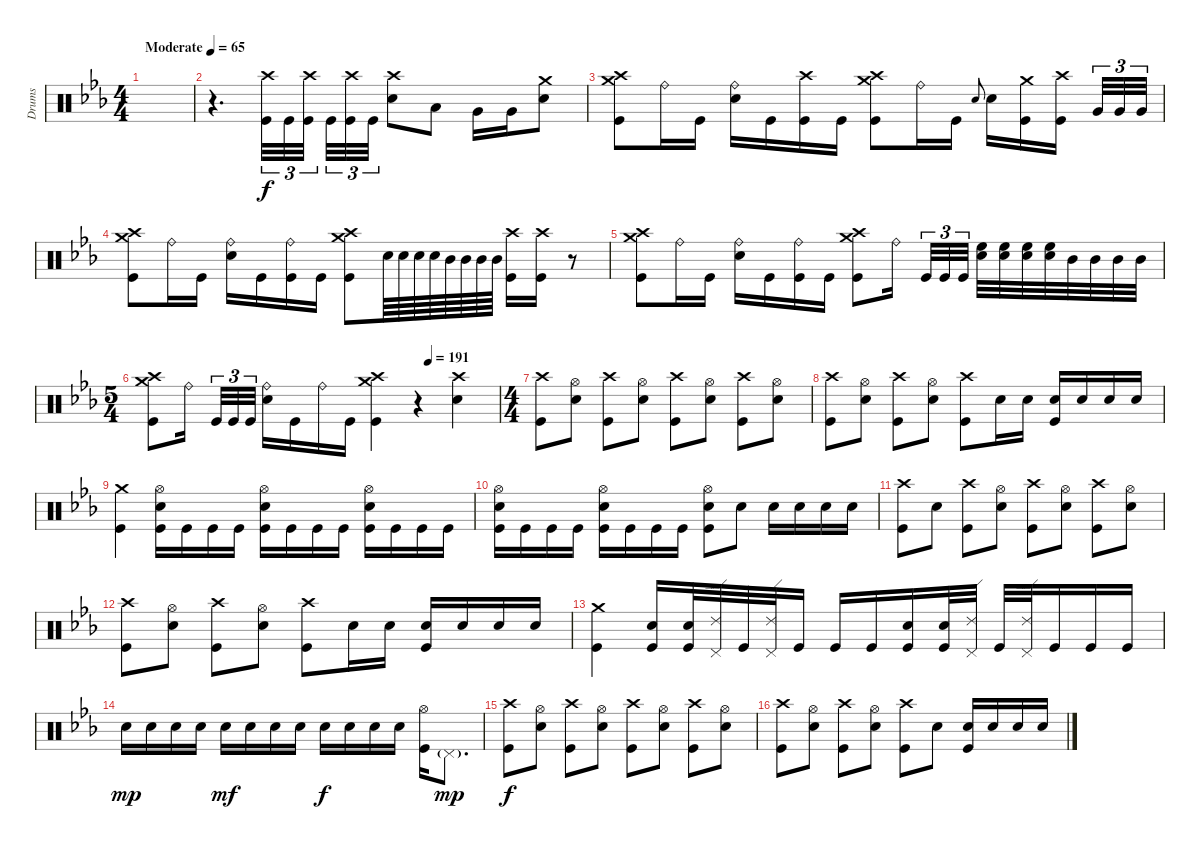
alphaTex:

\track ("Drums" "Drums") {instrument percussion}
\staff {score}
\articulation defaults
\ts (4 4)
\tempo (65 "Moderate")
\clef neutral
\ks cminor
|
r.4{d volume 14} ("Crash high (hit)" "Kick (hit)").32{tu (3 2)} "Kick (hit)".32{tu (3 2)} ("Crash high (hit)" "Kick (hit)").32{tu (3 2) beam splitsecondary} "Kick (hit)".32{tu (3 2)} ("Crash high (hit)" "Kick (hit)").32{tu (3 2)} "Kick (hit)".32{tu (3 2)} ("Crash high (hit)" "Electric Snare (hit)").8 "Low Tom (hit)".8 "Very Low Tom (hit)".16 "Very Low Tom (hit)".16 ("Crash medium (hit)" "Electric Snare (hit)").8 |
("Crash medium (hit)" "Crash high (hit)" "Kick (hit)").8 "Ride (bell)".16 "Kick (hit)".16 ("Ride (bell)" "Electric Snare (hit)").16 "Kick (hit)".16 ("Crash high (hit)" "Kick (hit)").16 "Kick (hit)".16 ("Crash medium (hit)" "Crash high (hit)" "Kick (hit)").8 "Ride (bell)".16 "Kick (hit)".16 "Electric Snare (hit)".8{gr onbeat} "Electric Snare (hit)".16 ("Crash medium (hit)" "Kick (hit)").16 ("Crash high (hit)" "Kick (hit)").16{beam splitsecondary} "Very Low Tom (hit)".32{tu (3 2)} "Very Low Tom (hit)".32{tu (3 2)} "Very Low Tom (hit)".32{tu (3 2)} |
("Crash medium (hit)" "Crash high (hit)" "Kick (hit)").8 "Ride (bell)".16 "Kick (hit)".16 ("Ride (bell)" "Electric Snare (hit)").16 "Kick (hit)".16 ("Ride (bell)" "Kick (hit)").16 "Kick (hit)".16 ("Crash medium (hit)" "Crash high (hit)" "Kick (hit)").8 "Electric Snare (hit)".64 "Electric Snare (hit)".64 "Electric Snare (hit)".64 "Electric Snare (hit)".64 "Mid Tom (hit)".64 "Mid Tom (hit)".64 "Mid Tom (hit)".64 "Mid Tom (hit)".64 ("Crash high (hit)" "Kick (hit)").16 ("Crash high (hit)" "Kick (hit)").16 r.8 |
("Crash medium (hit)" "Crash high (hit)" "Kick (hit)").8 "Ride (bell)".16 "Kick (hit)".16 ("Ride (bell)" "Electric Snare (hit)").16 "Kick (hit)".16 ("Ride (bell)" "Kick (hit)").16 "Kick (hit)".16 ("Crash medium (hit)" "Crash high (hit)" "Kick (hit)").8 "Ride (bell)".16{beam splitsecondary} "Kick (hit)".32{tu (3 2)} "Kick (hit)".32{tu (3 2)} "Kick (hit)".32{tu (3 2)} ("High Floor Tom (hit)" "Electric Snare (hit)").32 ("High Floor Tom (hit)" "Electric Snare (hit)").32 ("High Floor Tom (hit)" "Electric Snare (hit)").32 ("High Floor Tom (hit)" "Electric Snare (hit)").32 "Mid Tom (hit)".32 "Mid Tom (hit)".32 "Mid Tom (hit)".32 "Mid Tom (hit)".32 |
\ts (5 4)
\tempo (191 0.8)
("Crash medium (hit)" "Crash high (hit)" "Kick (hit)").8 "Ride (bell)".16{beam splitsecondary} "Kick (hit)".32{tu (3 2)} "Kick (hit)".32{tu (3 2)} "Kick (hit)".32{tu (3 2)} ("Ride (bell)" "Electric Snare (hit)").16 "Kick (hit)".16 "Ride (bell)".16 "Kick (hit)".16 ("Crash medium (hit)" "Crash high (hit)" "Kick (hit)").4 r.4 ("Crash high (hit)" "Electric Snare (hit)").4 |
\ts (4 4)
("Crash high (hit)" "Kick (hit)").8 ("Hi-Hat (open)" "Electric Snare (hit)").8 ("Crash high (hit)" "Kick (hit)").8 ("Hi-Hat (open)" "Electric Snare (hit)").8 ("Crash high (hit)" "Kick (hit)").8 ("Hi-Hat (open)" "Electric Snare (hit)").8 ("Crash high (hit)" "Kick (hit)").8 ("Hi-Hat (open)" "Electric Snare (hit)").8 |
("Crash high (hit)" "Kick (hit)").8 ("Hi-Hat (open)" "Electric Snare (hit)").8 ("Crash high (hit)" "Kick (hit)").8 ("Hi-Hat (open)" "Electric Snare (hit)").8 ("Crash high (hit)" "Kick (hit)").8 "Electric Snare (hit)".16 "Electric Snare (hit)".16 ("Electric Snare (hit)" "Kick (hit)").16 "Electric Snare (hit)".16 "Electric Snare (hit)".16 "Electric Snare (hit)".16 |
("Crash medium (hit)" "Kick (hit)").4 ("Hi-Hat (open)" "Electric Snare (hit)" "Kick (hit)").16 "Kick (hit)".16 "Kick (hit)".16 "Kick (hit)".16 ("Hi-Hat (open)" "Electric Snare (hit)" "Kick (hit)").16 "Kick (hit)".16 "Kick (hit)".16 "Kick (hit)".16 ("Hi-Hat (open)" "Electric Snare (hit)" "Kick (hit)").16 "Kick (hit)".16 "Kick (hit)".16 "Kick (hit)".16 |
("Hi-Hat (open)" "Electric Snare (hit)" "Kick (hit)").16 "Kick (hit)".16 "Kick (hit)".16 "Kick (hit)".16 ("Hi-Hat (open)" "Electric Snare (hit)" "Kick (hit)").16 "Kick (hit)".16 "Kick (hit)".16 "Kick (hit)".16 ("Hi-Hat (open)" "Electric Snare (hit)" "Kick (hit)").8 "Electric Snare (hit)".8 "Electric Snare (hit)".16 "Electric Snare (hit)".16 "Electric Snare (hit)".16 "Electric Snare (hit)".16 |
("Crash high (hit)" "Kick (hit)").8 "Electric Snare (hit)".8 ("Crash high (hit)" "Kick (hit)").8 ("Hi-Hat (open)" "Electric Snare (hit)").8 ("Crash high (hit)" "Kick (hit)").8 ("Hi-Hat (open)" "Electric Snare (hit)").8 ("Crash high (hit)" "Kick (hit)").8 ("Hi-Hat (open)" "Electric Snare (hit)").8 |
("Crash high (hit)" "Kick (hit)").8 ("Hi-Hat (open)" "Electric Snare (hit)").8 ("Crash high (hit)" "Kick (hit)").8 ("Hi-Hat (open)" "Electric Snare (hit)").8 ("Crash high (hit)" "Kick (hit)").8 "Electric Snare (hit)".16 "Electric Snare (hit)".16 ("Electric Snare (hit)" "Kick (hit)").16 "Electric Snare (hit)".16 "Electric Snare (hit)".16 "Electric Snare (hit)".16 |
("Crash medium (hit)" "Kick (hit)").4 ("Electric Snare (hit)" "Kick (hit)").16 ("Electric Snare (hit)" "Kick (hit)").32 ("Ride (edge) 2" "Pedal Hi-Hat (hit)").32 "Kick (hit)".32 ("Ride (edge) 2" "Pedal Hi-Hat (hit)").32 "Kick (hit)".16 "Kick (hit)".16 "Kick (hit)".16 ("Electric Snare (hit)" "Kick (hit)").16 ("Electric Snare (hit)" "Kick (hit)").32 ("Ride (edge) 2" "Pedal Hi-Hat (hit)").32 "Kick (hit)".32 ("Ride (edge) 2" "Pedal Hi-Hat (hit)").32 "Kick (hit)".16 "Kick (hit)".16 "Kick (hit)".16 |
"Electric Snare (hit)".16{dy mp} "Electric Snare (hit)".16 "Electric Snare (hit)".16 "Electric Snare (hit)".16 "Electric Snare (hit)".16{dy mf} "Electric Snare (hit)".16 "Electric Snare (hit)".16 "Electric Snare (hit)".16 "Electric Snare (hit)".16{dy f} "Electric Snare (hit)".16 "Electric Snare (hit)".16 "Electric Snare (hit)".16 ("Hi-Hat (open)" "Kick (hit)").16 "Pedal Hi-Hat (hit)"{g}.8{d dy mp} |
("Crash high (hit)" "Kick (hit)").8{dy f} ("Hi-Hat (open)" "Electric Snare (hit)").8 ("Crash high (hit)" "Kick (hit)").8 ("Hi-Hat (open)" "Electric Snare (hit)").8 ("Crash high (hit)" "Kick (hit)").8 ("Hi-Hat (open)" "Electric Snare (hit)").8 ("Crash high (hit)" "Kick (hit)").8 ("Hi-Hat (open)" "Electric Snare (hit)").8 |
("Crash high (hit)" "Kick (hit)").8 ("Hi-Hat (open)" "Electric Snare (hit)").8 ("Crash high (hit)" "Kick (hit)").8 ("Hi-Hat (open)" "Electric Snare (hit)").8 ("Crash high (hit)" "Kick (hit)").8 "Electric Snare (hit)".8 ("Electric Snare (hit)" "Kick (hit)").16 "Electric Snare (hit)".16 "Electric Snare (hit)".16 "Electric Snare (hit)".16
